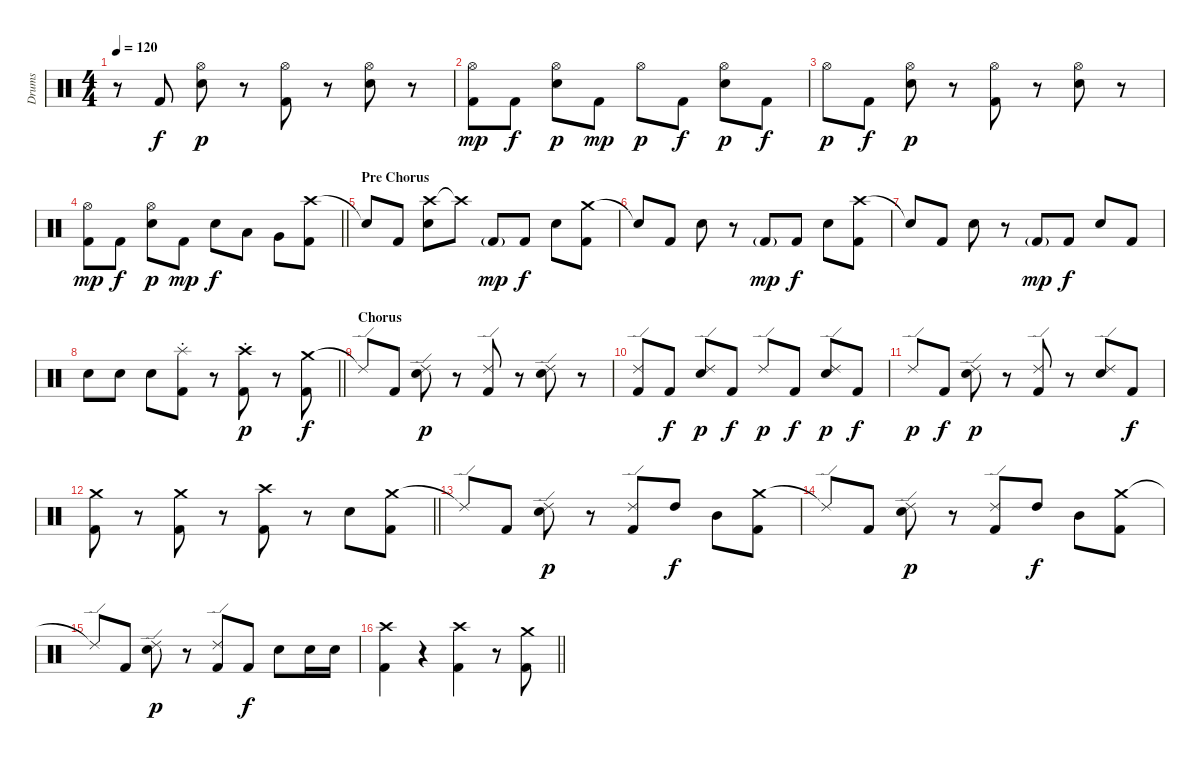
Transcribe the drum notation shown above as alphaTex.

\track ("Drums" "Drums") {instrument percussion}
\staff {score}
\articulation defaults
\ts (4 4)
\tempo 120
\clef neutral
\ks c
r.8{dy f} "Kick (hit) 2".8 ("Hi-Hat (open)" "Electric Snare (hit)").8{dy p} r.8 ("Hi-Hat (open)" "Kick (hit) 2").8 r.8 ("Hi-Hat (open)" "Electric Snare (hit)").8 r.8 |
("Hi-Hat (open)" "Kick (hit) 2").8{dy mp} "Kick (hit) 2".8{dy f} ("Hi-Hat (open)" "Electric Snare (hit)").8{dy p} "Kick (hit) 2".8{dy mp} "Hi-Hat (open)".8{dy p} "Kick (hit) 2".8{dy f} ("Hi-Hat (open)" "Electric Snare (hit)").8{dy p} "Kick (hit) 2".8{dy f} |
"Hi-Hat (open)".8{dy p} "Kick (hit) 2".8{dy f} ("Hi-Hat (open)" "Electric Snare (hit)").8{dy p} r.8 ("Hi-Hat (open)" "Kick (hit) 2").8 r.8 ("Hi-Hat (open)" "Electric Snare (hit)").8 r.8 |
\barLineRight lightlight
("Hi-Hat (open)" "Kick (hit) 2").8{dy mp} "Kick (hit) 2".8{dy f} ("Hi-Hat (open)" "Electric Snare (hit)").8{dy p} "Kick (hit) 2".8{dy mp} "Electric Snare (hit)".8{dy f} "Low Tom (hit)".8 "Very Low Tom (hit)".8 ("Crash high (hit)" "Kick (hit) 2").8 |
\section ("" "Pre Chorus")
"Snare (hit)"{t}.8 "Kick (hit) 2".8 ("Crash high (hit)" "Electric Snare (hit)").8 "Crash high (hit)"{t}.8 "Kick (hit) 2"{g}.8{dy mp} "Kick (hit) 2".8{dy f} "Electric Snare (hit)".8 ("Crash medium (hit)" "Kick (hit) 2").8 |
"Snare (hit)"{t}.8 "Kick (hit) 2".8 "Electric Snare (hit)".8 r.8 "Kick (hit) 2"{g}.8{dy mp} "Kick (hit) 2".8{dy f} "Electric Snare (hit)".8 ("Crash high (hit)" "Kick (hit) 2").8 |
"Snare (hit)"{t}.8 "Kick (hit) 2".8 "Electric Snare (hit)".8 r.8 "Kick (hit) 2"{g}.8{dy mp} "Kick (hit) 2".8{dy f} "Electric Snare (hit)".8 "Kick (hit) 2".8 |
\barLineRight lightlight "Electric Snare (hit)".8 "Electric Snare (hit)".8 "Electric Snare (hit)".8
("Splash (hit)"{st} "Kick (hit) 2").8 r.8 ("Crash high (hit)"{st} "Kick (hit) 2").8{dy p} r.8 ("Crash medium (hit)" "Kick (hit) 2").8{dy f} |
\section ("" "Chorus")
"Ride (edge) 2"{t}.8 "Kick (hit) 2".8 ("Ride (edge) 2" "Electric Snare (hit)").8{dy p} r.8 ("Ride (edge) 2" "Kick (hit) 2").8 r.8 ("Ride (edge) 2" "Electric Snare (hit)").8 r.8 |
("Ride (edge) 2" "Kick (hit) 2").8 "Kick (hit) 2".8{dy f} ("Ride (edge) 2" "Electric Snare (hit)").8{dy p} "Kick (hit) 2".8{dy f} "Ride (edge) 2".8{dy p} "Kick (hit) 2".8{dy f} ("Ride (edge) 2" "Electric Snare (hit)").8{dy p} "Kick (hit) 2".8{dy f} |
"Ride (edge) 2".8{dy p} "Kick (hit) 2".8{dy f} ("Ride (edge) 2" "Electric Snare (hit)").8{dy p} r.8 ("Ride (edge) 2" "Kick (hit) 2").8 r.8 ("Ride (edge) 2" "Electric Snare (hit)").8 "Kick (hit) 2".8{dy f} |
\barLineRight lightlight
("Crash medium (hit)" "Kick (hit) 2").8 r.8 ("Crash medium (hit)" "Kick (hit) 2").8 r.8 ("Crash high (hit)" "Kick (hit) 2").8 r.8 "Electric Snare (hit)".8 ("Crash medium (hit)" "Kick (hit) 2").8 |
"Ride (edge) 2"{t}.8 "Kick (hit) 2".8 ("Ride (edge) 2" "Electric Snare (hit)").8{dy p} r.8 ("Ride (edge) 2" "Kick (hit) 2").8 "High Tom (hit)".8{dy f} "Mid Tom (hit)".8 ("Crash medium (hit)" "Kick (hit) 2").8 |
"Ride (edge) 2"{t}.8 "Kick (hit) 2".8 ("Ride (edge) 2" "Electric Snare (hit)").8{dy p} r.8 ("Ride (edge) 2" "Kick (hit) 2").8 "High Tom (hit)".8{dy f} "Mid Tom (hit)".8 ("Crash medium (hit)" "Kick (hit) 2").8 |
"Ride (edge) 2"{t}.8 "Kick (hit) 2".8 ("Ride (edge) 2" "Electric Snare (hit)").8{dy p} r.8 ("Ride (edge) 2" "Kick (hit) 2").8 "Kick (hit) 2".8{dy f} "Electric Snare (hit)".8 "Electric Snare (hit)".16 "Electric Snare (hit)".16 |
\barLineRight lightlight
("Crash high (hit)" "Kick (hit) 2").4 r.4 ("Crash high (hit)" "Kick (hit) 2").4 r.8 ("Crash medium (hit)" "Kick (hit) 2").8
